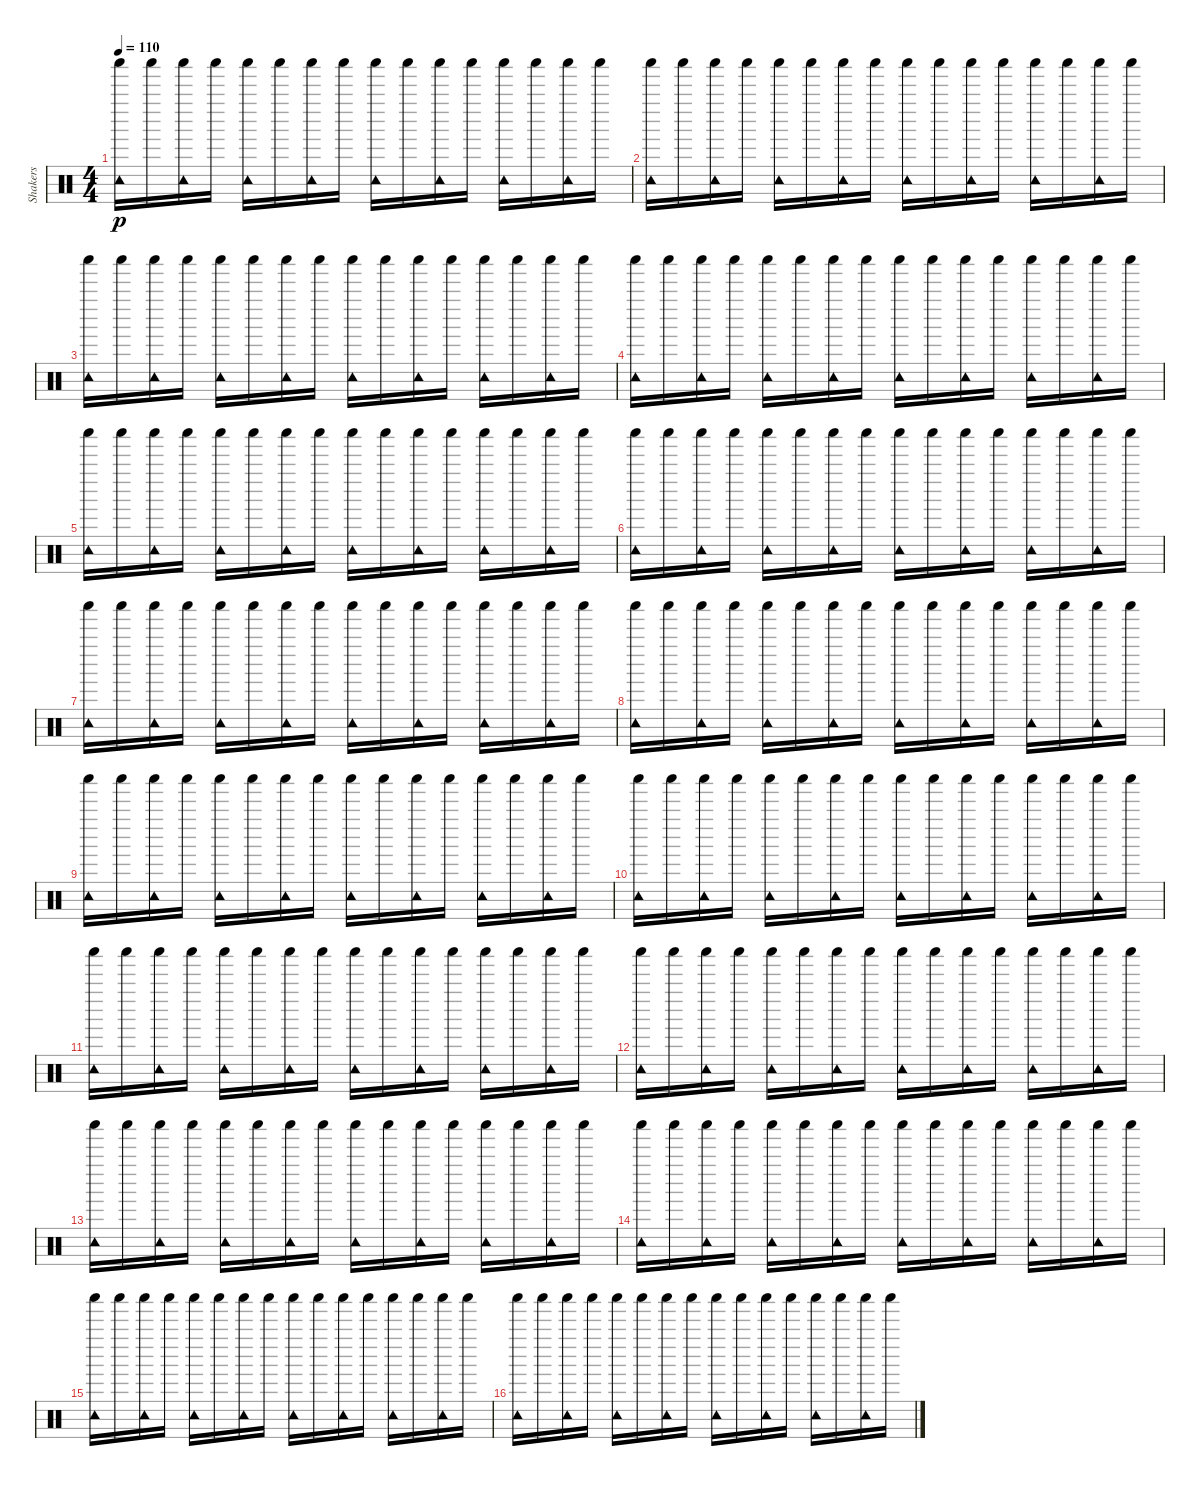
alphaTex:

\track ("Shakers" "Shakers") {instrument percussion}
\staff {score}
\articulation defaults
\ts (4 4)
\tempo 110
\clef neutral
\ks c
("Shaker (hit)" "Tambourine (hit)").16{dy p} "Shaker (hit)".16 ("Shaker (hit)" "Tambourine (hit)").16 "Shaker (hit)".16 ("Shaker (hit)" "Tambourine (hit)").16 "Shaker (hit)".16 ("Shaker (hit)" "Tambourine (hit)").16 "Shaker (hit)".16 ("Shaker (hit)" "Tambourine (hit)").16 "Shaker (hit)".16 ("Shaker (hit)" "Tambourine (hit)").16 "Shaker (hit)".16 ("Shaker (hit)" "Tambourine (hit)").16 "Shaker (hit)".16 ("Shaker (hit)" "Tambourine (hit)").16 "Shaker (hit)".16 |
("Shaker (hit)" "Tambourine (hit)").16 "Shaker (hit)".16 ("Shaker (hit)" "Tambourine (hit)").16 "Shaker (hit)".16 ("Shaker (hit)" "Tambourine (hit)").16 "Shaker (hit)".16 ("Shaker (hit)" "Tambourine (hit)").16 "Shaker (hit)".16 ("Shaker (hit)" "Tambourine (hit)").16 "Shaker (hit)".16 ("Shaker (hit)" "Tambourine (hit)").16 "Shaker (hit)".16 ("Shaker (hit)" "Tambourine (hit)").16 "Shaker (hit)".16 ("Shaker (hit)" "Tambourine (hit)").16 "Shaker (hit)".16 |
("Shaker (hit)" "Tambourine (hit)").16 "Shaker (hit)".16 ("Shaker (hit)" "Tambourine (hit)").16 "Shaker (hit)".16 ("Shaker (hit)" "Tambourine (hit)").16 "Shaker (hit)".16 ("Shaker (hit)" "Tambourine (hit)").16 "Shaker (hit)".16 ("Shaker (hit)" "Tambourine (hit)").16 "Shaker (hit)".16 ("Shaker (hit)" "Tambourine (hit)").16 "Shaker (hit)".16 ("Shaker (hit)" "Tambourine (hit)").16 "Shaker (hit)".16 ("Shaker (hit)" "Tambourine (hit)").16 "Shaker (hit)".16 |
("Shaker (hit)" "Tambourine (hit)").16 "Shaker (hit)".16 ("Shaker (hit)" "Tambourine (hit)").16 "Shaker (hit)".16 ("Shaker (hit)" "Tambourine (hit)").16 "Shaker (hit)".16 ("Shaker (hit)" "Tambourine (hit)").16 "Shaker (hit)".16 ("Shaker (hit)" "Tambourine (hit)").16 "Shaker (hit)".16 ("Shaker (hit)" "Tambourine (hit)").16 "Shaker (hit)".16 ("Shaker (hit)" "Tambourine (hit)").16 "Shaker (hit)".16 ("Shaker (hit)" "Tambourine (hit)").16 "Shaker (hit)".16 |
("Shaker (hit)" "Tambourine (hit)").16 "Shaker (hit)".16 ("Shaker (hit)" "Tambourine (hit)").16 "Shaker (hit)".16 ("Shaker (hit)" "Tambourine (hit)").16 "Shaker (hit)".16 ("Shaker (hit)" "Tambourine (hit)").16 "Shaker (hit)".16 ("Shaker (hit)" "Tambourine (hit)").16 "Shaker (hit)".16 ("Shaker (hit)" "Tambourine (hit)").16 "Shaker (hit)".16 ("Shaker (hit)" "Tambourine (hit)").16 "Shaker (hit)".16 ("Shaker (hit)" "Tambourine (hit)").16 "Shaker (hit)".16 |
("Shaker (hit)" "Tambourine (hit)").16 "Shaker (hit)".16 ("Shaker (hit)" "Tambourine (hit)").16 "Shaker (hit)".16 ("Shaker (hit)" "Tambourine (hit)").16 "Shaker (hit)".16 ("Shaker (hit)" "Tambourine (hit)").16 "Shaker (hit)".16 ("Shaker (hit)" "Tambourine (hit)").16 "Shaker (hit)".16 ("Shaker (hit)" "Tambourine (hit)").16 "Shaker (hit)".16 ("Shaker (hit)" "Tambourine (hit)").16 "Shaker (hit)".16 ("Shaker (hit)" "Tambourine (hit)").16 "Shaker (hit)".16 |
("Shaker (hit)" "Tambourine (hit)").16 "Shaker (hit)".16 ("Shaker (hit)" "Tambourine (hit)").16 "Shaker (hit)".16 ("Shaker (hit)" "Tambourine (hit)").16 "Shaker (hit)".16 ("Shaker (hit)" "Tambourine (hit)").16 "Shaker (hit)".16 ("Shaker (hit)" "Tambourine (hit)").16 "Shaker (hit)".16 ("Shaker (hit)" "Tambourine (hit)").16 "Shaker (hit)".16 ("Shaker (hit)" "Tambourine (hit)").16 "Shaker (hit)".16 ("Shaker (hit)" "Tambourine (hit)").16 "Shaker (hit)".16 |
("Shaker (hit)" "Tambourine (hit)").16 "Shaker (hit)".16 ("Shaker (hit)" "Tambourine (hit)").16 "Shaker (hit)".16 ("Shaker (hit)" "Tambourine (hit)").16 "Shaker (hit)".16 ("Shaker (hit)" "Tambourine (hit)").16 "Shaker (hit)".16 ("Shaker (hit)" "Tambourine (hit)").16 "Shaker (hit)".16 ("Shaker (hit)" "Tambourine (hit)").16 "Shaker (hit)".16 ("Shaker (hit)" "Tambourine (hit)").16 "Shaker (hit)".16 ("Shaker (hit)" "Tambourine (hit)").16 "Shaker (hit)".16 |
("Shaker (hit)" "Tambourine (hit)").16 "Shaker (hit)".16 ("Shaker (hit)" "Tambourine (hit)").16 "Shaker (hit)".16 ("Shaker (hit)" "Tambourine (hit)").16 "Shaker (hit)".16 ("Shaker (hit)" "Tambourine (hit)").16 "Shaker (hit)".16 ("Shaker (hit)" "Tambourine (hit)").16 "Shaker (hit)".16 ("Shaker (hit)" "Tambourine (hit)").16 "Shaker (hit)".16 ("Shaker (hit)" "Tambourine (hit)").16 "Shaker (hit)".16 ("Shaker (hit)" "Tambourine (hit)").16 "Shaker (hit)".16 |
("Shaker (hit)" "Tambourine (hit)").16 "Shaker (hit)".16 ("Shaker (hit)" "Tambourine (hit)").16 "Shaker (hit)".16 ("Shaker (hit)" "Tambourine (hit)").16 "Shaker (hit)".16 ("Shaker (hit)" "Tambourine (hit)").16 "Shaker (hit)".16 ("Shaker (hit)" "Tambourine (hit)").16 "Shaker (hit)".16 ("Shaker (hit)" "Tambourine (hit)").16 "Shaker (hit)".16 ("Shaker (hit)" "Tambourine (hit)").16 "Shaker (hit)".16 ("Shaker (hit)" "Tambourine (hit)").16 "Shaker (hit)".16 |
("Shaker (hit)" "Tambourine (hit)").16 "Shaker (hit)".16 ("Shaker (hit)" "Tambourine (hit)").16 "Shaker (hit)".16 ("Shaker (hit)" "Tambourine (hit)").16 "Shaker (hit)".16 ("Shaker (hit)" "Tambourine (hit)").16 "Shaker (hit)".16 ("Shaker (hit)" "Tambourine (hit)").16 "Shaker (hit)".16 ("Shaker (hit)" "Tambourine (hit)").16 "Shaker (hit)".16 ("Shaker (hit)" "Tambourine (hit)").16 "Shaker (hit)".16 ("Shaker (hit)" "Tambourine (hit)").16 "Shaker (hit)".16 |
("Shaker (hit)" "Tambourine (hit)").16 "Shaker (hit)".16 ("Shaker (hit)" "Tambourine (hit)").16 "Shaker (hit)".16 ("Shaker (hit)" "Tambourine (hit)").16 "Shaker (hit)".16 ("Shaker (hit)" "Tambourine (hit)").16 "Shaker (hit)".16 ("Shaker (hit)" "Tambourine (hit)").16 "Shaker (hit)".16 ("Shaker (hit)" "Tambourine (hit)").16 "Shaker (hit)".16 ("Shaker (hit)" "Tambourine (hit)").16 "Shaker (hit)".16 ("Shaker (hit)" "Tambourine (hit)").16 "Shaker (hit)".16 |
("Shaker (hit)" "Tambourine (hit)").16 "Shaker (hit)".16 ("Shaker (hit)" "Tambourine (hit)").16 "Shaker (hit)".16 ("Shaker (hit)" "Tambourine (hit)").16 "Shaker (hit)".16 ("Shaker (hit)" "Tambourine (hit)").16 "Shaker (hit)".16 ("Shaker (hit)" "Tambourine (hit)").16 "Shaker (hit)".16 ("Shaker (hit)" "Tambourine (hit)").16 "Shaker (hit)".16 ("Shaker (hit)" "Tambourine (hit)").16 "Shaker (hit)".16 ("Shaker (hit)" "Tambourine (hit)").16 "Shaker (hit)".16 |
("Shaker (hit)" "Tambourine (hit)").16 "Shaker (hit)".16 ("Shaker (hit)" "Tambourine (hit)").16 "Shaker (hit)".16 ("Shaker (hit)" "Tambourine (hit)").16 "Shaker (hit)".16 ("Shaker (hit)" "Tambourine (hit)").16 "Shaker (hit)".16 ("Shaker (hit)" "Tambourine (hit)").16 "Shaker (hit)".16 ("Shaker (hit)" "Tambourine (hit)").16 "Shaker (hit)".16 ("Shaker (hit)" "Tambourine (hit)").16 "Shaker (hit)".16 ("Shaker (hit)" "Tambourine (hit)").16 "Shaker (hit)".16 |
("Shaker (hit)" "Tambourine (hit)").16 "Shaker (hit)".16 ("Shaker (hit)" "Tambourine (hit)").16 "Shaker (hit)".16 ("Shaker (hit)" "Tambourine (hit)").16 "Shaker (hit)".16 ("Shaker (hit)" "Tambourine (hit)").16 "Shaker (hit)".16 ("Shaker (hit)" "Tambourine (hit)").16 "Shaker (hit)".16 ("Shaker (hit)" "Tambourine (hit)").16 "Shaker (hit)".16 ("Shaker (hit)" "Tambourine (hit)").16 "Shaker (hit)".16 ("Shaker (hit)" "Tambourine (hit)").16 "Shaker (hit)".16 |
("Shaker (hit)" "Tambourine (hit)").16 "Shaker (hit)".16 ("Shaker (hit)" "Tambourine (hit)").16 "Shaker (hit)".16 ("Shaker (hit)" "Tambourine (hit)").16 "Shaker (hit)".16 ("Shaker (hit)" "Tambourine (hit)").16 "Shaker (hit)".16 ("Shaker (hit)" "Tambourine (hit)").16 "Shaker (hit)".16 ("Shaker (hit)" "Tambourine (hit)").16 "Shaker (hit)".16 ("Shaker (hit)" "Tambourine (hit)").16 "Shaker (hit)".16 ("Shaker (hit)" "Tambourine (hit)").16 "Shaker (hit)".16
